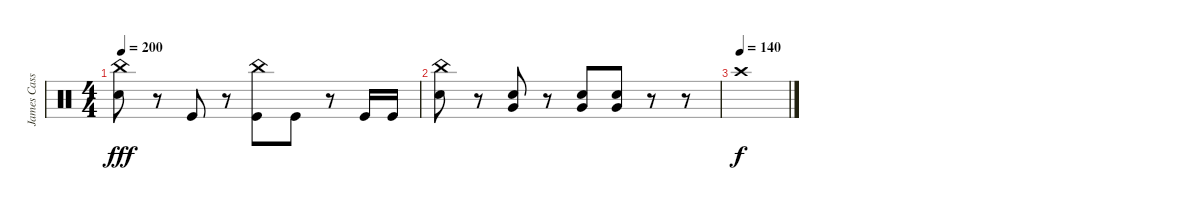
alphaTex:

\track ("James Cassells" "James Cass") {instrument percussion}
\staff {score}
\articulation defaults
\ts (4 4)
\tempo 200
\clef neutral
\ks c
("China (hit)" "Electric Snare (hit)").8{dy fff} r.8 "Kick (hit)".8 r.8 ("China (hit)" "Kick (hit)").8 "Kick (hit)".8 r.8 "Kick (hit)".16 "Kick (hit)".16 |
("China (hit)" "Electric Snare (hit)").8 r.8 ("Very Low Tom (hit)" "Electric Snare (hit)").8 r.8 ("Very Low Tom (hit)" "Electric Snare (hit)").8 ("Very Low Tom (hit)" "Electric Snare (hit)").8 r.8 r.8 |
\tempo (140)
"Crash high (hit)".1{dy f}
